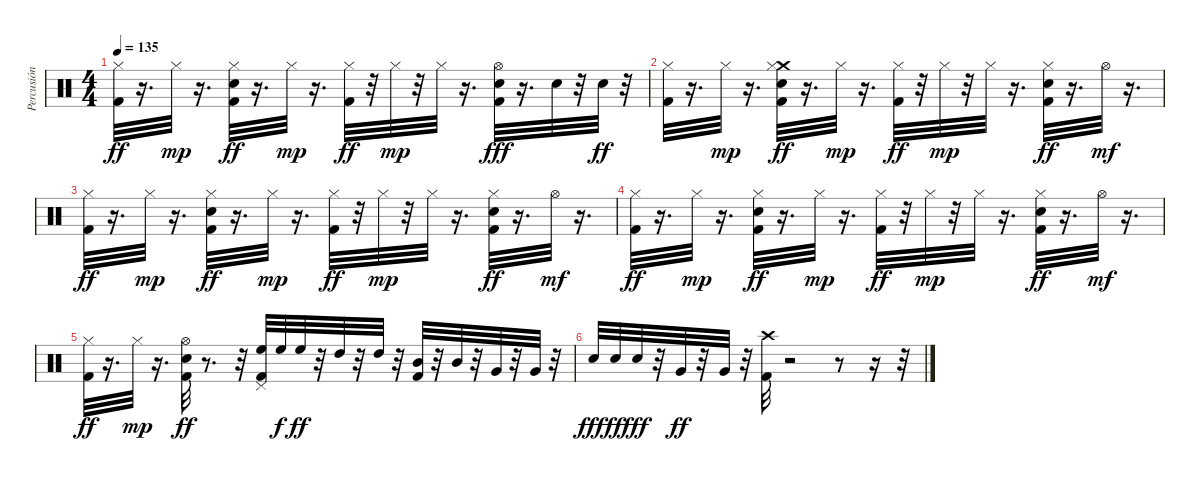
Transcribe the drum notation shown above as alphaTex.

\track ("Percusión" "Percusión") {instrument percussion}
\staff {score}
\articulation defaults
\ts (4 4)
\tempo 135
\clef neutral
\ks c
("Hi-Hat (closed)" "Kick (hit) 2").32{dy ff} r.16{d} "Hi-Hat (closed)".32{dy mp} r.16{d} ("Hi-Hat (closed)" "Electric Snare (hit)" "Kick (hit) 2").32{dy ff} r.16{d} "Hi-Hat (closed)".32{dy mp} r.16{d} ("Hi-Hat (closed)" "Kick (hit) 2").32{dy ff} r.32 "Hi-Hat (closed)".32{dy mp} r.32 "Hi-Hat (closed)".32 r.16{d} ("Hi-Hat (open)" "Electric Snare (hit)" "Kick (hit) 2").32{dy fff} r.16{d} "Electric Snare (hit)".32 r.32 "Electric Snare (hit)".32{dy ff} r.32 |
("Hi-Hat (closed)" "Kick (hit) 2").32 r.16{d} "Hi-Hat (closed)".32{dy mp} r.16{d} ("Crash medium (hit)" "Hi-Hat (closed)" "Electric Snare (hit)" "Kick (hit) 2").32{dy ff} r.16{d} "Hi-Hat (closed)".32{dy mp} r.16{d} ("Hi-Hat (closed)" "Kick (hit) 2").32{dy ff} r.32 "Hi-Hat (closed)".32{dy mp} r.32 "Hi-Hat (closed)".32 r.16{d} ("Hi-Hat (closed)" "Electric Snare (hit)" "Kick (hit) 2").32{dy ff} r.16{d} "Hi-Hat (open)".32{dy mf} r.16{d} |
("Hi-Hat (closed)" "Kick (hit) 2").32{dy ff} r.16{d} "Hi-Hat (closed)".32{dy mp} r.16{d} ("Hi-Hat (closed)" "Electric Snare (hit)" "Kick (hit) 2").32{dy ff} r.16{d} "Hi-Hat (closed)".32{dy mp} r.16{d} ("Hi-Hat (closed)" "Kick (hit) 2").32{dy ff} r.32 "Hi-Hat (closed)".32{dy mp} r.32 "Hi-Hat (closed)".32 r.16{d} ("Hi-Hat (closed)" "Electric Snare (hit)" "Kick (hit) 2").32{dy ff} r.16{d} "Hi-Hat (open)".32{dy mf} r.16{d} |
("Hi-Hat (closed)" "Kick (hit) 2").32{dy ff} r.16{d} "Hi-Hat (closed)".32{dy mp} r.16{d} ("Hi-Hat (closed)" "Electric Snare (hit)" "Kick (hit) 2").32{dy ff} r.16{d} "Hi-Hat (closed)".32{dy mp} r.16{d} ("Hi-Hat (closed)" "Kick (hit) 2").32{dy ff} r.32 "Hi-Hat (closed)".32{dy mp} r.32 "Hi-Hat (closed)".32 r.16{d} ("Hi-Hat (closed)" "Electric Snare (hit)" "Kick (hit) 2").32{dy ff} r.16{d} "Hi-Hat (open)".32{dy mf} r.16{d} |
("Hi-Hat (closed)" "Kick (hit) 2").32{dy ff} r.16{d} "Hi-Hat (closed)".32{dy mp} r.16{d} ("Hi-Hat (open)" "Electric Snare (hit)" "Kick (hit) 2").32{dy ff} r.8{d} r.32 ("High Floor Tom (hit)" "Pedal Hi-Hat (hit)" "Kick (hit) 2").32 "High Floor Tom (hit)".32{dy f} "High Floor Tom (hit)".32{dy ff} r.32 "High Tom (hit)".32 r.32 "High Tom (hit)".32 r.32 ("Mid Tom (hit)" "Kick (hit) 2").32 r.32 "Mid Tom (hit)".32 r.32 "Very Low Tom (hit)".32 r.32 "Very Low Tom (hit)".32 r.32 |
"Electric Snare (hit)".32{dy fff} "Electric Snare (hit)".32{dy ff} "Electric Snare (hit)".32{dy fff} r.32 "Very Low Tom (hit)".32{dy ff} r.32 "Very Low Tom (hit)".32 r.32 ("Crash high (hit)" "Kick (hit) 2").32 r.2 r.8 r.16 r.32
